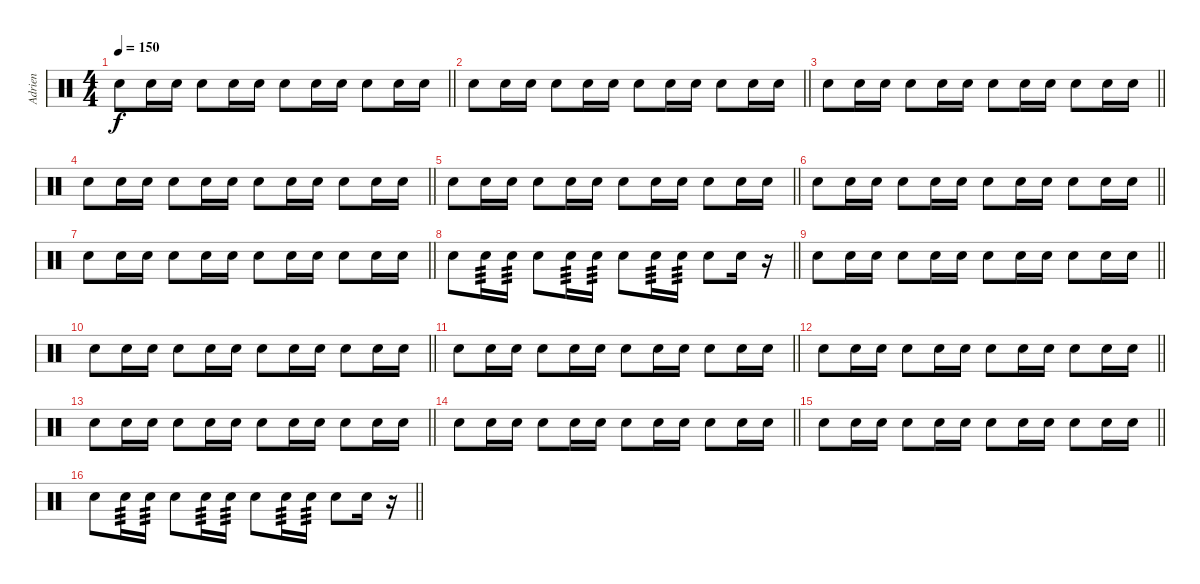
\track ("Adrien" "Adrien") {instrument percussion}
\staff {score}
\articulation defaults
\ts (4 4)
\tempo 150
\clef neutral
\barLineRight lightlight
\ks c "Snare (hit) 2".8{dy f} "Electric Snare (hit)".16 "Electric Snare (hit)".16 "Snare (hit) 2".8 "Electric Snare (hit)".16 "Electric Snare (hit)".16 "Snare (hit) 2".8 "Electric Snare (hit)".16 "Electric Snare (hit)".16 "Snare (hit) 2".8 "Electric Snare (hit)".16 "Electric Snare (hit)".16
|
\barLineRight lightlight "Snare (hit) 2".8 "Electric Snare (hit)".16 "Electric Snare (hit)".16 "Snare (hit) 2".8 "Electric Snare (hit)".16 "Electric Snare (hit)".16 "Snare (hit) 2".8 "Electric Snare (hit)".16 "Electric Snare (hit)".16 "Snare (hit) 2".8 "Electric Snare (hit)".16 "Electric Snare (hit)".16
|
\barLineRight lightlight "Snare (hit) 2".8 "Electric Snare (hit)".16 "Electric Snare (hit)".16 "Snare (hit) 2".8 "Electric Snare (hit)".16 "Electric Snare (hit)".16 "Snare (hit) 2".8 "Electric Snare (hit)".16 "Electric Snare (hit)".16 "Snare (hit) 2".8 "Electric Snare (hit)".16 "Electric Snare (hit)".16
|
\barLineRight lightlight "Snare (hit) 2".8 "Electric Snare (hit)".16 "Electric Snare (hit)".16 "Snare (hit) 2".8 "Electric Snare (hit)".16 "Electric Snare (hit)".16 "Snare (hit) 2".8 "Electric Snare (hit)".16 "Electric Snare (hit)".16 "Snare (hit) 2".8 "Electric Snare (hit)".16 "Electric Snare (hit)".16
|
\barLineRight lightlight "Snare (hit) 2".8 "Electric Snare (hit)".16 "Electric Snare (hit)".16 "Snare (hit) 2".8 "Electric Snare (hit)".16 "Electric Snare (hit)".16 "Snare (hit) 2".8 "Electric Snare (hit)".16 "Electric Snare (hit)".16 "Snare (hit) 2".8 "Electric Snare (hit)".16 "Electric Snare (hit)".16
|
\barLineRight lightlight "Snare (hit) 2".8 "Electric Snare (hit)".16 "Electric Snare (hit)".16 "Snare (hit) 2".8 "Electric Snare (hit)".16 "Electric Snare (hit)".16 "Snare (hit) 2".8 "Electric Snare (hit)".16 "Electric Snare (hit)".16 "Snare (hit) 2".8 "Electric Snare (hit)".16 "Electric Snare (hit)".16
|
\barLineRight lightlight "Snare (hit) 2".8 "Electric Snare (hit)".16 "Electric Snare (hit)".16 "Snare (hit) 2".8 "Electric Snare (hit)".16 "Electric Snare (hit)".16 "Snare (hit) 2".8 "Electric Snare (hit)".16 "Electric Snare (hit)".16 "Snare (hit) 2".8 "Electric Snare (hit)".16 "Electric Snare (hit)".16
|
\barLineRight lightlight "Snare (hit) 2".8 "Electric Snare (hit)".16{tp 3} "Electric Snare (hit)".16{tp 3} "Snare (hit) 2".8 "Electric Snare (hit)".16{tp 3} "Electric Snare (hit)".16{tp 3} "Snare (hit) 2".8 "Electric Snare (hit)".16{tp 3} "Electric Snare (hit)".16{tp 3} "Snare (hit) 2".8 "Electric Snare (hit)".16
r.16 |
\barLineRight lightlight "Snare (hit) 2".8 "Electric Snare (hit)".16 "Electric Snare (hit)".16 "Snare (hit) 2".8 "Electric Snare (hit)".16 "Electric Snare (hit)".16 "Snare (hit) 2".8 "Electric Snare (hit)".16 "Electric Snare (hit)".16 "Snare (hit) 2".8 "Electric Snare (hit)".16 "Electric Snare (hit)".16
|
\barLineRight lightlight "Snare (hit) 2".8 "Electric Snare (hit)".16 "Electric Snare (hit)".16 "Snare (hit) 2".8 "Electric Snare (hit)".16 "Electric Snare (hit)".16 "Snare (hit) 2".8 "Electric Snare (hit)".16 "Electric Snare (hit)".16 "Snare (hit) 2".8 "Electric Snare (hit)".16 "Electric Snare (hit)".16
|
\barLineRight lightlight "Snare (hit) 2".8 "Electric Snare (hit)".16 "Electric Snare (hit)".16 "Snare (hit) 2".8 "Electric Snare (hit)".16 "Electric Snare (hit)".16 "Snare (hit) 2".8 "Electric Snare (hit)".16 "Electric Snare (hit)".16 "Snare (hit) 2".8 "Electric Snare (hit)".16 "Electric Snare (hit)".16
|
\barLineRight lightlight "Snare (hit) 2".8 "Electric Snare (hit)".16 "Electric Snare (hit)".16 "Snare (hit) 2".8 "Electric Snare (hit)".16 "Electric Snare (hit)".16 "Snare (hit) 2".8 "Electric Snare (hit)".16 "Electric Snare (hit)".16 "Snare (hit) 2".8 "Electric Snare (hit)".16 "Electric Snare (hit)".16
|
\barLineRight lightlight "Snare (hit) 2".8 "Electric Snare (hit)".16 "Electric Snare (hit)".16 "Snare (hit) 2".8 "Electric Snare (hit)".16 "Electric Snare (hit)".16 "Snare (hit) 2".8 "Electric Snare (hit)".16 "Electric Snare (hit)".16 "Snare (hit) 2".8 "Electric Snare (hit)".16 "Electric Snare (hit)".16
|
\barLineRight lightlight "Snare (hit) 2".8 "Electric Snare (hit)".16 "Electric Snare (hit)".16 "Snare (hit) 2".8 "Electric Snare (hit)".16 "Electric Snare (hit)".16 "Snare (hit) 2".8 "Electric Snare (hit)".16 "Electric Snare (hit)".16 "Snare (hit) 2".8 "Electric Snare (hit)".16 "Electric Snare (hit)".16
|
\barLineRight lightlight "Snare (hit) 2".8 "Electric Snare (hit)".16 "Electric Snare (hit)".16 "Snare (hit) 2".8 "Electric Snare (hit)".16 "Electric Snare (hit)".16 "Snare (hit) 2".8 "Electric Snare (hit)".16 "Electric Snare (hit)".16 "Snare (hit) 2".8 "Electric Snare (hit)".16 "Electric Snare (hit)".16
|
\barLineRight lightlight "Snare (hit) 2".8 "Electric Snare (hit)".16{tp 3} "Electric Snare (hit)".16{tp 3} "Snare (hit) 2".8 "Electric Snare (hit)".16{tp 3} "Electric Snare (hit)".16{tp 3} "Snare (hit) 2".8 "Electric Snare (hit)".16{tp 3} "Electric Snare (hit)".16{tp 3} "Snare (hit) 2".8 "Electric Snare (hit)".16
r.16
